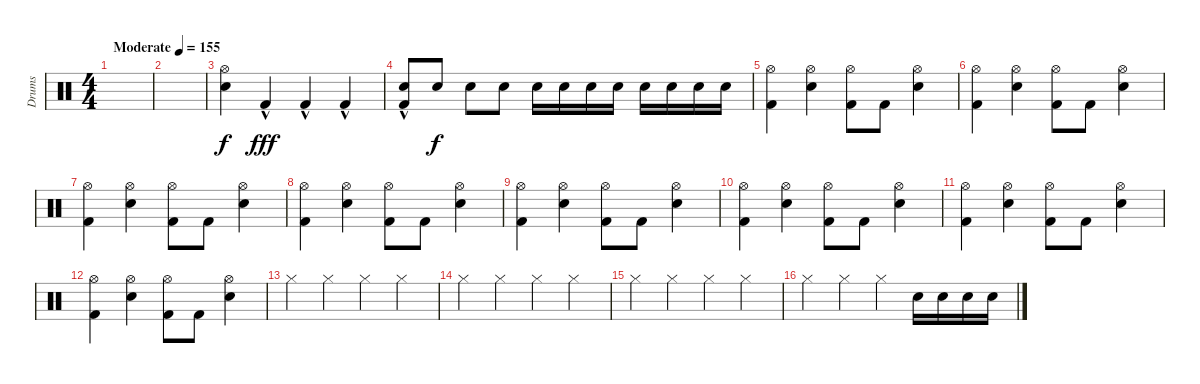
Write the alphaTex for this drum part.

\track ("Drums" "Drums") {instrument percussion}
\staff {score}
\articulation defaults
\ts (4 4)
\tempo (155 "Moderate")
\clef neutral
\ks c
|
|
("Electric Snare (hit)" "Hi-Hat (open)").4 "Kick (hit) 2"{hac}.4{dy fff} "Kick (hit) 2"{hac}.4 "Kick (hit) 2"{hac}.4 |
("Kick (hit) 2"{hac} "Electric Snare (hit)").8 "Electric Snare (hit)".8{dy f} "Electric Snare (hit)".8 "Electric Snare (hit)".8 "Electric Snare (hit)".16 "Electric Snare (hit)".16 "Electric Snare (hit)".16 "Electric Snare (hit)".16 "Electric Snare (hit)".16 "Electric Snare (hit)".16 "Electric Snare (hit)".16 "Electric Snare (hit)".16 |
("Hi-Hat (open)" "Kick (hit) 2").4 ("Hi-Hat (open)" "Electric Snare (hit)").4 ("Hi-Hat (open)" "Kick (hit) 2").8 "Kick (hit) 2".8 ("Hi-Hat (open)" "Electric Snare (hit)").4 |
("Hi-Hat (open)" "Kick (hit) 2").4 ("Hi-Hat (open)" "Electric Snare (hit)").4 ("Hi-Hat (open)" "Kick (hit) 2").8 "Kick (hit) 2".8 ("Hi-Hat (open)" "Electric Snare (hit)").4 |
("Hi-Hat (open)" "Kick (hit) 2").4 ("Hi-Hat (open)" "Electric Snare (hit)").4 ("Hi-Hat (open)" "Kick (hit) 2").8 "Kick (hit) 2".8 ("Hi-Hat (open)" "Electric Snare (hit)").4 |
("Hi-Hat (open)" "Kick (hit) 2").4 ("Hi-Hat (open)" "Electric Snare (hit)").4 ("Hi-Hat (open)" "Kick (hit) 2").8 "Kick (hit) 2".8 ("Hi-Hat (open)" "Electric Snare (hit)").4 |
("Hi-Hat (open)" "Kick (hit) 2").4 ("Hi-Hat (open)" "Electric Snare (hit)").4 ("Hi-Hat (open)" "Kick (hit) 2").8 "Kick (hit) 2".8 ("Hi-Hat (open)" "Electric Snare (hit)").4 |
("Hi-Hat (open)" "Kick (hit) 2").4 ("Hi-Hat (open)" "Electric Snare (hit)").4 ("Hi-Hat (open)" "Kick (hit) 2").8 "Kick (hit) 2".8 ("Hi-Hat (open)" "Electric Snare (hit)").4 |
("Hi-Hat (open)" "Kick (hit) 2").4 ("Hi-Hat (open)" "Electric Snare (hit)").4 ("Hi-Hat (open)" "Kick (hit) 2").8 "Kick (hit) 2".8 ("Hi-Hat (open)" "Electric Snare (hit)").4 |
("Hi-Hat (open)" "Kick (hit) 2").4 ("Hi-Hat (open)" "Electric Snare (hit)").4 ("Hi-Hat (open)" "Kick (hit) 2").8 "Kick (hit) 2".8 ("Hi-Hat (open)" "Electric Snare (hit)").4 |
"Hi-Hat (closed)".4 "Hi-Hat (closed)".4 "Hi-Hat (closed)".4 "Hi-Hat (closed)".4 |
"Hi-Hat (closed)".4 "Hi-Hat (closed)".4 "Hi-Hat (closed)".4 "Hi-Hat (closed)".4 |
"Hi-Hat (closed)".4 "Hi-Hat (closed)".4 "Hi-Hat (closed)".4 "Hi-Hat (closed)".4 |
"Hi-Hat (closed)".4 "Hi-Hat (closed)".4 "Hi-Hat (closed)".4 "Electric Snare (hit)".16 "Electric Snare (hit)".16 "Electric Snare (hit)".16 "Electric Snare (hit)".16
